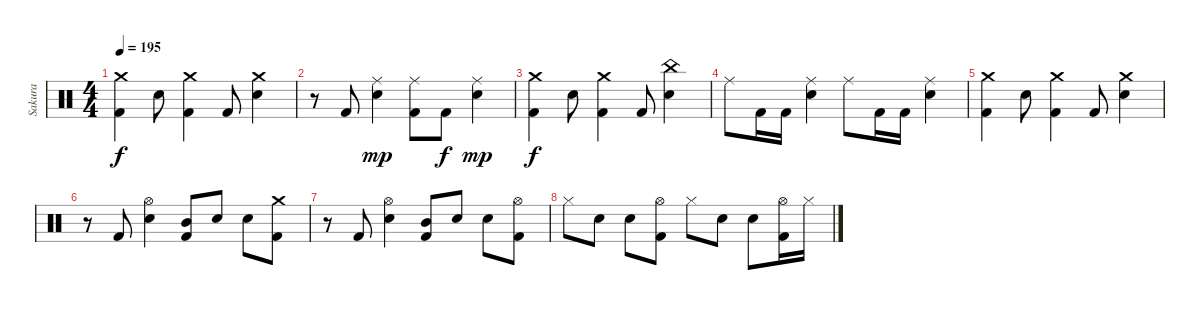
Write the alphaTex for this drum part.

\track ("Sakura" "Sakura") {instrument percussion}
\staff {score}
\articulation defaults
\ts (4 4)
\tempo 195
\clef neutral
\ks c
("Crash medium (hit)" "Kick (hit) 2").4{dy f} "Snare (hit) 2".8 ("Crash medium (hit)" "Kick (hit) 2").4 "Kick (hit) 2".8 ("Crash medium (hit)" "Snare (hit) 2").4 |
r.8 "Kick (hit) 2".8 ("Ride (middle)" "Snare (hit) 2").4{dy mp} ("Ride (middle)" "Kick (hit) 2").8 "Kick (hit) 2".8{dy f} ("Ride (middle)" "Snare (hit) 2").4{dy mp} |
("Crash medium (hit)" "Kick (hit) 2").4{dy f} "Snare (hit) 2".8 ("Crash medium (hit)" "Kick (hit) 2").4 "Kick (hit) 2".8 ("China (hit)" "Snare (hit) 2").4 |
"Ride (middle)".8 "Kick (hit) 2".16 "Kick (hit) 2".16 ("Ride (middle)" "Snare (hit) 2").4 "Ride (middle)".8 "Kick (hit) 2".16 "Kick (hit) 2".16 ("Ride (middle)" "Snare (hit) 2").4 |
("Crash medium (hit)" "Kick (hit) 2").4 "Snare (hit) 2".8 ("Crash medium (hit)" "Kick (hit) 2").4 "Kick (hit) 2".8 ("Crash medium (hit)" "Snare (hit) 2").4 |
r.8 "Kick (hit) 2".8 ("Hi-Hat (open)" "Snare (hit) 2").4 ("Mid Tom (hit)" "Kick (hit) 2").8 "Snare (hit) 2".8 "Snare (hit) 2".8 ("Crash medium (hit)" "Kick (hit) 2").8 |
r.8 "Kick (hit) 2".8 ("Hi-Hat (open)" "Snare (hit) 2").4 ("Mid Tom (hit)" "Kick (hit) 2").8 "Snare (hit) 2".8 "Snare (hit) 2".8 ("Hi-Hat (open)" "Kick (hit) 2").8 |
"Hi-Hat (closed)".8 "Snare (hit) 2".8 "Snare (hit) 2".8 ("Hi-Hat (open)" "Kick (hit) 2").8 "Hi-Hat (closed)".8 "Snare (hit) 2".8 "Snare (hit) 2".8 ("Hi-Hat (open)" "Kick (hit) 2").16 "Hi-Hat (closed)".16
